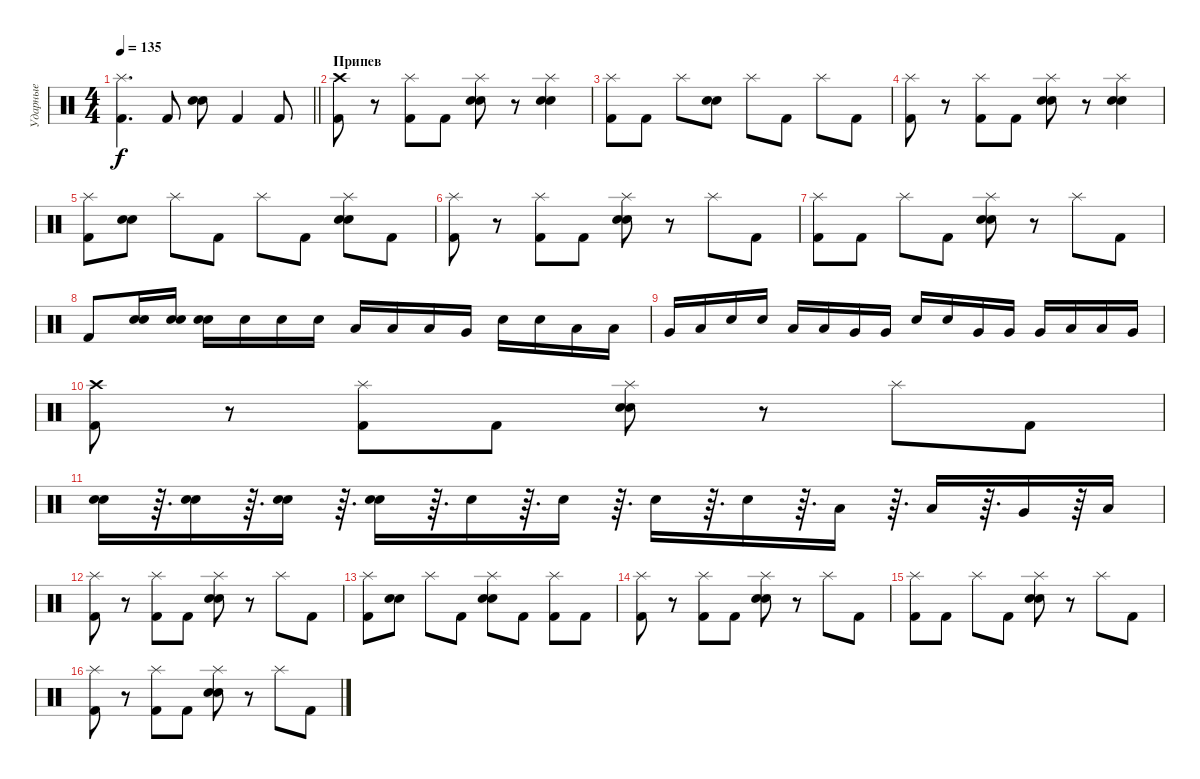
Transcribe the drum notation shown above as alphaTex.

\track ("Ударные" "Ударные") {instrument percussion}
\staff {score}
\articulation defaults
\ts (4 4)
\tempo 135
\clef neutral
\barLineRight lightlight
\ks c
("Splash (hit)" "Kick (hit) 2").4{d dy f} "Kick (hit) 2".8 ("Electric Snare (hit)" "Snare (hit) 2").8 "Kick (hit) 2".4 "Kick (hit) 2".8 |
\section ("" "Припев")
("Crash high (hit)" "Kick (hit) 2").8 r.8 ("Splash (hit)" "Kick (hit) 2").8 "Kick (hit) 2".8 ("Splash (hit)" "Electric Snare (hit)" "Snare (hit) 2").8 r.8 ("Splash (hit)" "Electric Snare (hit)" "Snare (hit) 2").4 |
("Splash (hit)" "Kick (hit) 2").8 "Kick (hit) 2".8 "Splash (hit)".8 ("Electric Snare (hit)" "Snare (hit) 2").8 "Splash (hit)".8 "Kick (hit) 2".8 "Splash (hit)".8 "Kick (hit) 2".8 |
("Splash (hit)" "Kick (hit) 2").8 r.8 ("Splash (hit)" "Kick (hit) 2").8 "Kick (hit) 2".8 ("Splash (hit)" "Electric Snare (hit)" "Snare (hit) 2").8 r.8 ("Splash (hit)" "Electric Snare (hit)" "Snare (hit) 2").4 |
("Splash (hit)" "Kick (hit) 2").8 ("Electric Snare (hit)" "Snare (hit) 2").8 "Splash (hit)".8 "Kick (hit) 2".8 "Splash (hit)".8 "Kick (hit) 2".8 ("Splash (hit)" "Electric Snare (hit)" "Snare (hit) 2").8 "Kick (hit) 2".8 |
("Splash (hit)" "Kick (hit) 2").8 r.8 ("Splash (hit)" "Kick (hit) 2").8 "Kick (hit) 2".8 ("Splash (hit)" "Electric Snare (hit)" "Snare (hit) 2").8 r.8 "Splash (hit)".8 "Kick (hit) 2".8 |
("Splash (hit)" "Kick (hit) 2").8 "Kick (hit) 2".8 "Splash (hit)".8 "Kick (hit) 2".8 ("Splash (hit)" "Electric Snare (hit)" "Snare (hit) 2").8 r.8 "Splash (hit)".8 "Kick (hit) 2".8 |
"Kick (hit) 2".8 ("Electric Snare (hit)" "Snare (hit) 2").16 ("Electric Snare (hit)" "Snare (hit) 2").16 ("Electric Snare (hit)" "Snare (hit) 2").16 "Electric Snare (hit)".16 "Electric Snare (hit)".16 "Electric Snare (hit)".16 "Low Tom (hit)".16 "Low Tom (hit)".16 "Low Tom (hit)".16 "Very Low Tom (hit)".16 "Electric Snare (hit)".16 "Electric Snare (hit)".16 "Low Tom (hit)".16 "Low Tom (hit)".16 |
"Very Low Tom (hit)".16 "Low Tom (hit)".16 "Electric Snare (hit)".16 "Electric Snare (hit)".16 "Low Tom (hit)".16 "Low Tom (hit)".16 "Very Low Tom (hit)".16 "Very Low Tom (hit)".16 "Electric Snare (hit)".16 "Electric Snare (hit)".16 "Very Low Tom (hit)".16 "Very Low Tom (hit)".16 "Very Low Tom (hit)".16 "Low Tom (hit)".16 "Low Floor Tom (hit)".16 "Very Low Tom (hit)".16 |
("Crash high (hit)" "Kick (hit) 2").8 r.8 ("Splash (hit)" "Kick (hit) 2").8 "Kick (hit) 2".8 ("Splash (hit)" "Electric Snare (hit)" "Snare (hit) 2").8 r.8 "Splash (hit)".8 "Kick (hit) 2".8 |
("Electric Snare (hit)" "Snare (hit) 2").16 r.64{d} ("Electric Snare (hit)" "Snare (hit) 2").16 r.64{d} ("Electric Snare (hit)" "Snare (hit) 2").16 r.64{d} ("Electric Snare (hit)" "Snare (hit) 2").16 r.64{d} "Electric Snare (hit)".16 r.64{d} "Electric Snare (hit)".16 r.64{d} "Electric Snare (hit)".16 r.64{d} "Electric Snare (hit)".16 r.64{d} "Low Tom (hit)".16 r.64{d} "Low Tom (hit)".16 r.64{d} "Very Low Tom (hit)".16 r.64 "Low Floor Tom (hit)".16 |
("Splash (hit)" "Kick (hit) 2").8 r.8 ("Splash (hit)" "Kick (hit) 2").8 "Kick (hit) 2".8 ("Splash (hit)" "Electric Snare (hit)" "Snare (hit) 2").8 r.8 "Splash (hit)".8 "Kick (hit) 2".8 |
("Splash (hit)" "Kick (hit) 2").8 ("Electric Snare (hit)" "Snare (hit) 2").8 "Splash (hit)".8 "Kick (hit) 2".8 ("Splash (hit)" "Electric Snare (hit)" "Snare (hit) 2").8 "Kick (hit) 2".8 ("Splash (hit)" "Kick (hit) 2").8 "Kick (hit) 2".8 |
("Splash (hit)" "Kick (hit) 2").8 r.8 ("Splash (hit)" "Kick (hit) 2").8 "Kick (hit) 2".8 ("Splash (hit)" "Electric Snare (hit)" "Snare (hit) 2").8 r.8 "Splash (hit)".8 "Kick (hit) 2".8 |
("Splash (hit)" "Kick (hit) 2").8 "Kick (hit) 2".8 "Splash (hit)".8 "Kick (hit) 2".8 ("Splash (hit)" "Electric Snare (hit)" "Snare (hit) 2").8 r.8 "Splash (hit)".8 "Kick (hit) 2".8 |
("Splash (hit)" "Kick (hit) 2").8 r.8 ("Splash (hit)" "Kick (hit) 2").8 "Kick (hit) 2".8 ("Splash (hit)" "Electric Snare (hit)" "Snare (hit) 2").8 r.8 "Splash (hit)".8 "Kick (hit) 2".8
